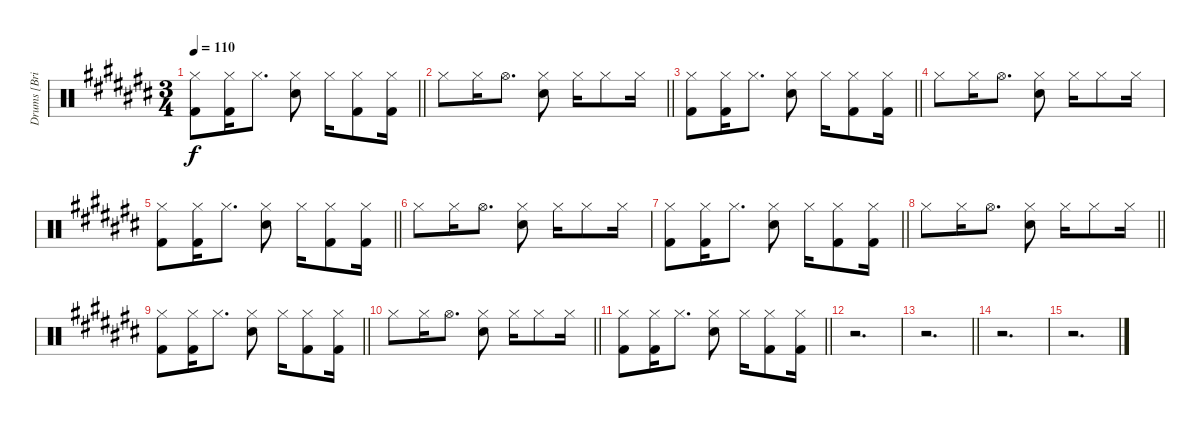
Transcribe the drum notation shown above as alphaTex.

\track ("Drums [Brian \"Brain\" Mantia]" "Drums [Bri") {instrument percussion}
\staff {score}
\articulation defaults
\ts (3 4)
\tempo 110
\clef neutral
\barLineRight lightlight
\ks c#
("Hi-Hat (closed)" "Kick (hit) 2").8{dy f} ("Hi-Hat (closed)" "Kick (hit) 2").16 "Hi-Hat (closed)".8{d} ("Hi-Hat (closed)" "Electric Snare (hit)").8 "Hi-Hat (closed)".16 ("Hi-Hat (closed)" "Kick (hit) 2").8 ("Hi-Hat (closed)" "Kick (hit) 2").16 |
\barLineRight lightlight "Hi-Hat (closed)".8 "Hi-Hat (closed)".16 "Hi-Hat (open)".8{d}
("Hi-Hat (closed)" "Electric Snare (hit)").8 "Hi-Hat (closed)".16 "Hi-Hat (closed)".8 "Hi-Hat (closed)".16 |
\barLineRight lightlight
("Hi-Hat (closed)" "Kick (hit) 2").8 ("Hi-Hat (closed)" "Kick (hit) 2").16 "Hi-Hat (closed)".8{d} ("Hi-Hat (closed)" "Electric Snare (hit)").8 "Hi-Hat (closed)".16 ("Hi-Hat (closed)" "Kick (hit) 2").8 ("Hi-Hat (closed)" "Kick (hit) 2").16 |
"Hi-Hat (closed)".8 "Hi-Hat (closed)".16 "Hi-Hat (open)".8{d} ("Hi-Hat (closed)" "Electric Snare (hit)").8 "Hi-Hat (closed)".16 "Hi-Hat (closed)".8 "Hi-Hat (closed)".16 |
\barLineRight lightlight
("Hi-Hat (closed)" "Kick (hit) 2").8 ("Hi-Hat (closed)" "Kick (hit) 2").16 "Hi-Hat (closed)".8{d} ("Hi-Hat (closed)" "Electric Snare (hit)").8 "Hi-Hat (closed)".16 ("Hi-Hat (closed)" "Kick (hit) 2").8 ("Hi-Hat (closed)" "Kick (hit) 2").16 |
"Hi-Hat (closed)".8 "Hi-Hat (closed)".16 "Hi-Hat (open)".8{d} ("Hi-Hat (closed)" "Electric Snare (hit)").8 "Hi-Hat (closed)".16 "Hi-Hat (closed)".8 "Hi-Hat (closed)".16 |
\barLineRight lightlight
("Hi-Hat (closed)" "Kick (hit) 2").8 ("Hi-Hat (closed)" "Kick (hit) 2").16 "Hi-Hat (closed)".8{d} ("Hi-Hat (closed)" "Electric Snare (hit)").8 "Hi-Hat (closed)".16 ("Hi-Hat (closed)" "Kick (hit) 2").8 ("Hi-Hat (closed)" "Kick (hit) 2").16 |
\barLineRight lightlight "Hi-Hat (closed)".8 "Hi-Hat (closed)".16 "Hi-Hat (open)".8{d}
("Hi-Hat (closed)" "Electric Snare (hit)").8 "Hi-Hat (closed)".16 "Hi-Hat (closed)".8 "Hi-Hat (closed)".16 |
\barLineRight lightlight
("Hi-Hat (closed)" "Kick (hit) 2").8{volume 12} ("Hi-Hat (closed)" "Kick (hit) 2").16 "Hi-Hat (closed)".8{d} ("Hi-Hat (closed)" "Electric Snare (hit)").8 "Hi-Hat (closed)".16 ("Hi-Hat (closed)" "Kick (hit) 2").8 ("Hi-Hat (closed)" "Kick (hit) 2").16 |
\barLineRight lightlight "Hi-Hat (closed)".8{volume 6} "Hi-Hat (closed)".16 "Hi-Hat (open)".8{d}
("Hi-Hat (closed)" "Electric Snare (hit)").8 "Hi-Hat (closed)".16 "Hi-Hat (closed)".8 "Hi-Hat (closed)".16 |
\barLineRight lightlight
("Hi-Hat (closed)" "Kick (hit) 2").8{volume 4} ("Hi-Hat (closed)" "Kick (hit) 2").16 "Hi-Hat (closed)".8{d} ("Hi-Hat (closed)" "Electric Snare (hit)").8 "Hi-Hat (closed)".16 ("Hi-Hat (closed)" "Kick (hit) 2").8 ("Hi-Hat (closed)" "Kick (hit) 2").16 |
r.2{d} |
\barLineRight lightlight
r.2{d} |
r.2{d} |
r.2{d}
